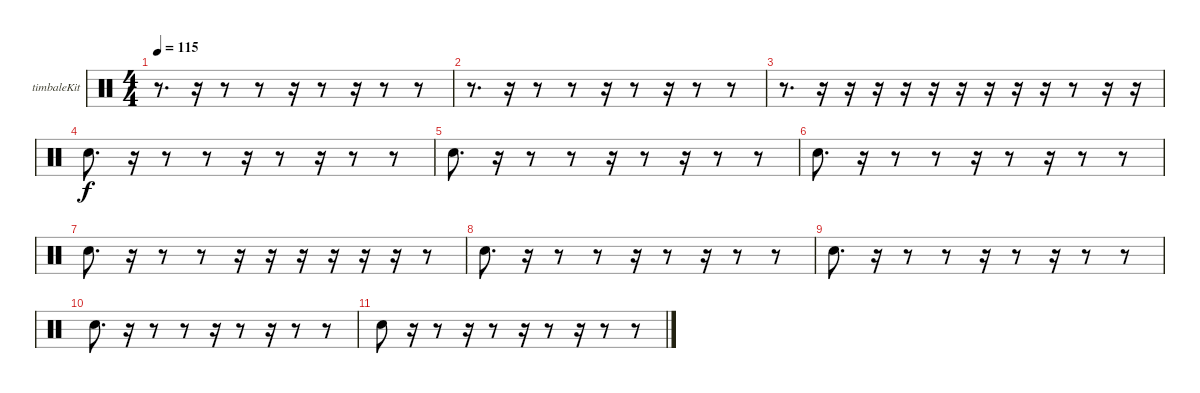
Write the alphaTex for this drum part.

\bracketExtendMode groupsimilarinstruments
\firstSystemTrackNameOrientation horizontal
\otherSystemsTrackNameOrientation horizontal
\track ("Timbale" "timbaleKit") {instrument percussion}
\staff {score}
\articulation defaults
\ts (4 4)
\tempo 115
\clef neutral
\ks c
r.8{d dy f} r.16 r.8 r.8 r.16 r.8 r.16 r.8 r.8 |
r.8{d} r.16 r.8 r.8 r.16 r.8 r.16 r.8 r.8 |
r.8{d} r.16 r.16 r.16 r.16 r.16 r.16 r.16 r.16 r.16 r.8 r.16 r.16 |
"Snare (hit) 2".8{d} r.16 r.8 r.8 r.16 r.8 r.16 r.8 r.8 |
"Snare (hit) 2".8{d} r.16 r.8 r.8 r.16 r.8 r.16 r.8 r.8 |
"Snare (hit) 2".8{d} r.16 r.8 r.8 r.16 r.8 r.16 r.8 r.8 |
"Snare (hit) 2".8{d} r.16 r.8 r.8 r.16 r.16 r.16 r.16 r.16 r.16 r.8 |
"Snare (hit) 2".8{d} r.16 r.8 r.8 r.16 r.8 r.16 r.8 r.8 |
"Snare (hit) 2".8{d} r.16 r.8 r.8 r.16 r.8 r.16 r.8 r.8 |
"Snare (hit) 2".8{d} r.16 r.8 r.8 r.16 r.8 r.16 r.8 r.8 |
"Snare (hit) 2".8 r.16 r.8 r.16 r.8 r.16 r.8 r.16 r.8 r.8
